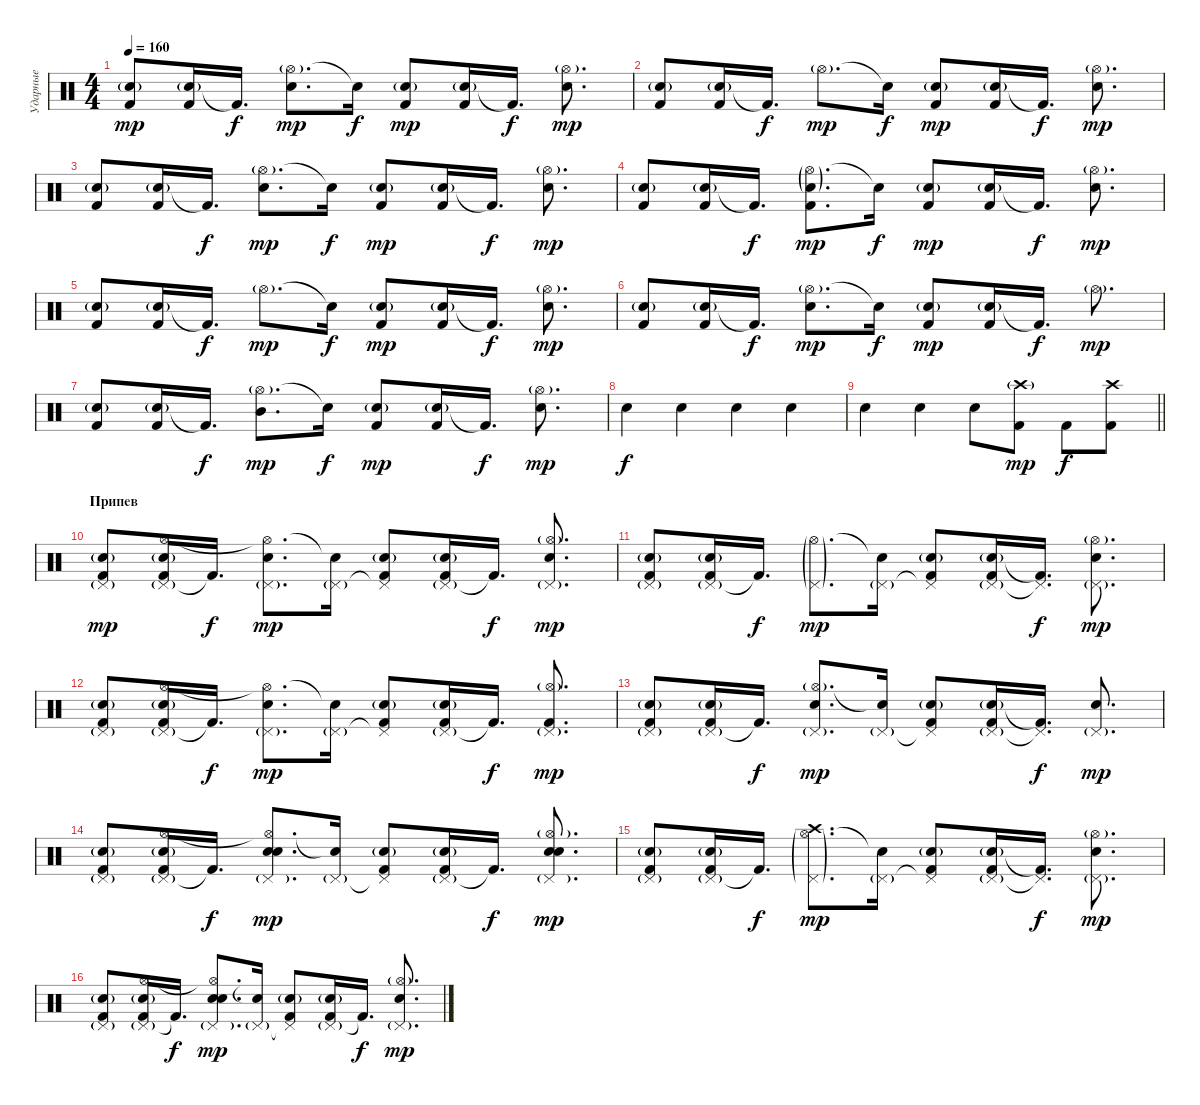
\track ("Ударные" "Ударные") {instrument percussion}
\staff {score}
\articulation defaults
\ts (4 4)
\tempo 160
\clef neutral
\ks c
("Snare (hit) 2"{g} "Kick (hit) 2").8{dy mp} ("Snare (hit) 2"{g} "Kick (hit) 2").16 "Kick (hit) 2"{t}.16{d dy f} ("Hi-Hat (open)"{g} "Snare (hit) 2").8{d dy mp} "Electric Snare (hit)"{t}.16{dy f} ("Snare (hit) 2"{g} "Kick (hit) 2").8{dy mp} ("Snare (hit) 2"{g} "Kick (hit) 2").16 "Kick (hit) 2"{t}.16{d dy f} ("Hi-Hat (open)"{g} "Electric Snare (hit)").8{d dy mp} |
("Snare (hit) 2"{g} "Kick (hit) 2").8 ("Snare (hit) 2"{g} "Kick (hit) 2").16 "Kick (hit) 2"{t}.16{d dy f} "Hi-Hat (open)"{g}.8{d dy mp} "Electric Snare (hit)"{t}.16{dy f} ("Snare (hit) 2"{g} "Kick (hit) 2").8{dy mp} ("Snare (hit) 2"{g} "Kick (hit) 2").16 "Kick (hit) 2"{t}.16{d dy f} ("Hi-Hat (open)"{g} "Electric Snare (hit)").8{d dy mp} |
("Snare (hit) 2"{g} "Kick (hit) 2").8 ("Snare (hit) 2"{g} "Kick (hit) 2").16 "Kick (hit) 2"{t}.16{d dy f} ("Hi-Hat (open)"{g} "Snare (hit) 2").8{d dy mp} "Electric Snare (hit)"{t}.16{dy f} ("Snare (hit) 2"{g} "Kick (hit) 2").8{dy mp} ("Snare (hit) 2"{g} "Kick (hit) 2").16 "Kick (hit) 2"{t}.16{d dy f} ("Hi-Hat (open)"{g} "Electric Snare (hit)").8{d dy mp} |
("Snare (hit) 2"{g} "Kick (hit) 2").8 ("Snare (hit) 2"{g} "Kick (hit) 2").16 "Kick (hit) 2"{t}.16{d dy f} ("Hi-Hat (open)"{g} "Kick (hit) 2" "Snare (hit) 2"{g}).8{d dy mp} "Electric Snare (hit)"{t}.16{dy f} ("Snare (hit) 2"{g} "Kick (hit) 2").8{dy mp} ("Snare (hit) 2"{g} "Kick (hit) 2").16 "Kick (hit) 2"{t}.16{d dy f} ("Hi-Hat (open)"{g} "Electric Snare (hit)").8{d dy mp} |
("Snare (hit) 2"{g} "Kick (hit) 2").8 ("Snare (hit) 2"{g} "Kick (hit) 2").16 "Kick (hit) 2"{t}.16{d dy f} "Hi-Hat (open)"{g}.8{d dy mp} "Electric Snare (hit)"{t}.16{dy f} ("Snare (hit) 2"{g} "Kick (hit) 2").8{dy mp} ("Snare (hit) 2"{g} "Kick (hit) 2").16 "Kick (hit) 2"{t}.16{d dy f} ("Hi-Hat (open)"{g} "Electric Snare (hit)").8{d dy mp} |
("Snare (hit) 2"{g} "Kick (hit) 2").8 ("Snare (hit) 2"{g} "Kick (hit) 2").16 "Kick (hit) 2"{t}.16{d dy f} ("Hi-Hat (open)"{g} "Snare (hit) 2").8{d dy mp} "Electric Snare (hit)"{t}.16{dy f} ("Snare (hit) 2"{g} "Kick (hit) 2").8{dy mp} ("Snare (hit) 2"{g} "Kick (hit) 2").16 "Kick (hit) 2"{t}.16{d dy f} "Hi-Hat (open)"{g}.8{d dy mp} |
("Snare (hit) 2"{g} "Kick (hit) 2").8 ("Snare (hit) 2"{g} "Kick (hit) 2").16 "Kick (hit) 2"{t}.16{d dy f} ("Hi-Hat (open)"{g} "Mid Tom (hit)").8{d dy mp} "Electric Snare (hit)"{t}.16{dy f} ("Snare (hit) 2"{g} "Kick (hit) 2").8{dy mp} ("Snare (hit) 2"{g} "Kick (hit) 2").16 "Kick (hit) 2"{t}.16{d dy f} ("Hi-Hat (open)"{g} "Electric Snare (hit)").8{d dy mp} |
"Electric Snare (hit)".4{dy f} "Electric Snare (hit)".4 "Electric Snare (hit)".4 "Electric Snare (hit)".4 |
\barLineRight lightlight "Electric Snare (hit)".4 "Electric Snare (hit)".4 "Electric Snare (hit)".8
("Crash high (hit)"{g} "Kick (hit) 2").8{dy mp} "Kick (hit) 2".8{dy f} ("Crash high (hit)" "Kick (hit) 2").8 |
\section ("" "Припев")
("Pedal Hi-Hat (hit)"{g} "Snare (hit) 2"{g} "Kick (hit) 2").8{dy mp} ("Pedal Hi-Hat (hit)"{g} "Hi-Hat (open)" "Snare (hit) 2"{g} "Kick (hit) 2").16 "Kick (hit) 2"{t}.16{d dy f} ("Pedal Hi-Hat (hit)"{g} "Hi-Hat (open)"{t} "Electric Snare (hit)").8{d dy mp} ("Pedal Hi-Hat (hit)"{g} "Electric Snare (hit)"{t}).16 ("Pedal Hi-Hat (hit)"{t} "Snare (hit) 2"{g} "Kick (hit) 2").8 ("Pedal Hi-Hat (hit)"{g} "Snare (hit) 2"{g} "Kick (hit) 2").16 "Kick (hit) 2"{t}.16{d dy f} ("Hi-Hat (open)"{g} "Pedal Hi-Hat (hit)"{g} "Snare (hit) 2").8{d dy mp} |
("Pedal Hi-Hat (hit)"{g} "Snare (hit) 2"{g} "Kick (hit) 2").8 ("Pedal Hi-Hat (hit)"{g} "Snare (hit) 2"{g} "Kick (hit) 2").16 "Kick (hit) 2"{t}.16{d dy f} ("Pedal Hi-Hat (hit)"{g} "Hi-Hat (open)"{g}).8{d dy mp} ("Pedal Hi-Hat (hit)"{g} "Electric Snare (hit)"{t}).16 ("Pedal Hi-Hat (hit)"{t} "Snare (hit) 2"{g} "Kick (hit) 2").8 ("Pedal Hi-Hat (hit)"{g} "Snare (hit) 2"{g} "Kick (hit) 2").16 ("Pedal Hi-Hat (hit)"{t} "Kick (hit) 2"{t}).16{d dy f} ("Hi-Hat (open)"{g} "Pedal Hi-Hat (hit)"{g} "Electric Snare (hit)").8{d dy mp} |
("Pedal Hi-Hat (hit)"{g} "Snare (hit) 2"{g} "Kick (hit) 2").8 ("Pedal Hi-Hat (hit)"{g} "Hi-Hat (open)" "Snare (hit) 2"{g} "Kick (hit) 2").16 "Kick (hit) 2"{t}.16{d dy f} ("Pedal Hi-Hat (hit)"{g} "Hi-Hat (open)"{t} "Electric Snare (hit)").8{d dy mp} ("Pedal Hi-Hat (hit)"{g} "Electric Snare (hit)"{t}).16 ("Pedal Hi-Hat (hit)"{t} "Snare (hit) 2"{g} "Kick (hit) 2").8 ("Pedal Hi-Hat (hit)"{g} "Snare (hit) 2"{g} "Kick (hit) 2").16 "Kick (hit) 2"{t}.16{d dy f} ("Hi-Hat (open)"{g} "Pedal Hi-Hat (hit)"{g} "Kick (hit) 2").8{d dy mp} |
("Pedal Hi-Hat (hit)"{g} "Snare (hit) 2"{g} "Kick (hit) 2").8 ("Pedal Hi-Hat (hit)"{g} "Snare (hit) 2"{g} "Kick (hit) 2").16 "Kick (hit) 2"{t}.16{d dy f} ("Pedal Hi-Hat (hit)"{g} "Hi-Hat (open)"{g} "Snare (hit) 2").8{d dy mp} ("Pedal Hi-Hat (hit)"{g} "Electric Snare (hit)"{t}).16 ("Pedal Hi-Hat (hit)"{t} "Snare (hit) 2"{g} "Kick (hit) 2").8 ("Pedal Hi-Hat (hit)"{g} "Snare (hit) 2"{g} "Kick (hit) 2").16 ("Pedal Hi-Hat (hit)"{t} "Kick (hit) 2"{t}).16{d dy f} ("Pedal Hi-Hat (hit)"{g} "Electric Snare (hit)").8{d dy mp} |
("Pedal Hi-Hat (hit)"{g} "Snare (hit) 2"{g} "Kick (hit) 2").8 ("Pedal Hi-Hat (hit)"{g} "Hi-Hat (open)" "Snare (hit) 2"{g} "Kick (hit) 2").16 "Kick (hit) 2"{t}.16{d dy f} ("Pedal Hi-Hat (hit)"{g} "Hi-Hat (open)"{t} "Snare (hit) 2" "Electric Snare (hit)").8{d dy mp} ("Pedal Hi-Hat (hit)"{g} "Electric Snare (hit)"{t}).16 ("Pedal Hi-Hat (hit)"{t} "Snare (hit) 2"{g} "Kick (hit) 2").8 ("Pedal Hi-Hat (hit)"{g} "Snare (hit) 2"{g} "Kick (hit) 2").16 "Kick (hit) 2"{t}.16{d dy f} ("Hi-Hat (open)"{g} "Pedal Hi-Hat (hit)"{g} "Electric Snare (hit)" "Snare (hit) 2").8{d dy mp} |
("Pedal Hi-Hat (hit)"{g} "Snare (hit) 2"{g} "Kick (hit) 2").8 ("Pedal Hi-Hat (hit)"{g} "Snare (hit) 2"{g} "Kick (hit) 2").16 "Kick (hit) 2"{t}.16{d dy f} ("Pedal Hi-Hat (hit)"{g} "Hi-Hat (open)"{g} "Crash high (hit)").8{d dy mp} ("Pedal Hi-Hat (hit)"{g} "Electric Snare (hit)"{t}).16 ("Pedal Hi-Hat (hit)"{t} "Snare (hit) 2"{g} "Kick (hit) 2").8 ("Pedal Hi-Hat (hit)"{g} "Snare (hit) 2"{g} "Kick (hit) 2").16 ("Pedal Hi-Hat (hit)"{t} "Kick (hit) 2"{t}).16{d dy f} ("Hi-Hat (open)"{g} "Pedal Hi-Hat (hit)"{g} "Electric Snare (hit)").8{d dy mp} |
("Pedal Hi-Hat (hit)"{g} "Snare (hit) 2"{g} "Kick (hit) 2").8 ("Pedal Hi-Hat (hit)"{g} "Hi-Hat (open)" "Snare (hit) 2"{g} "Kick (hit) 2").16 "Kick (hit) 2"{t}.16{d dy f} ("Pedal Hi-Hat (hit)"{g} "Hi-Hat (open)"{t} "Snare (hit) 2" "Electric Snare (hit)").8{d dy mp} ("Pedal Hi-Hat (hit)"{g} "Electric Snare (hit)"{t}).16 ("Pedal Hi-Hat (hit)"{t} "Snare (hit) 2"{g} "Kick (hit) 2").8 ("Pedal Hi-Hat (hit)"{g} "Snare (hit) 2"{g} "Kick (hit) 2").16 "Kick (hit) 2"{t}.16{d dy f} ("Hi-Hat (open)"{g} "Pedal Hi-Hat (hit)"{g} "Snare (hit) 2").8{d dy mp}
